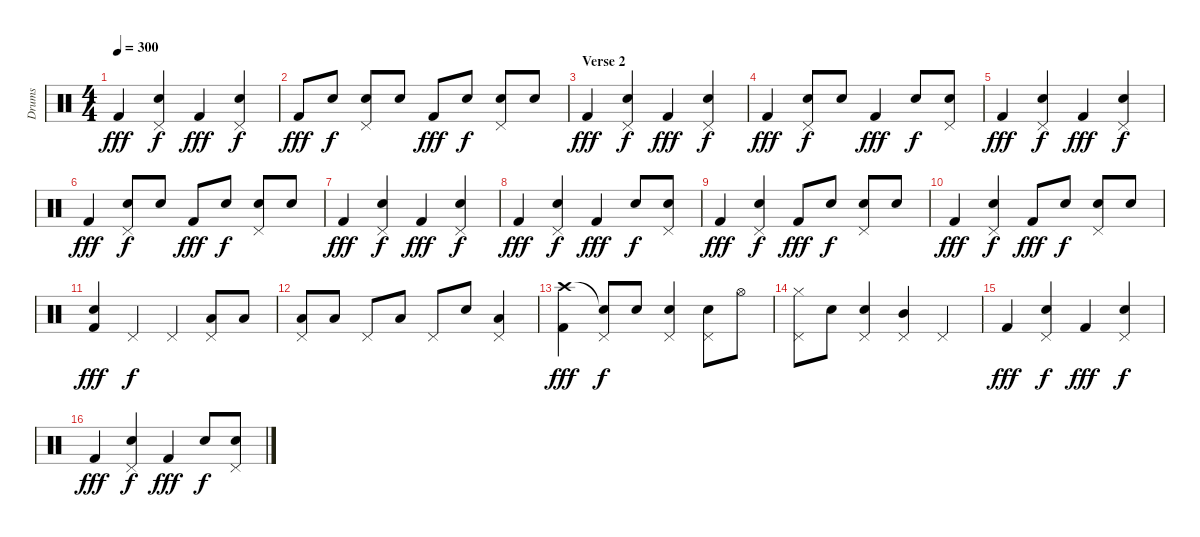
\track ("Drums" "Drums") {instrument percussion}
\staff {score}
\articulation defaults
\ts (4 4)
\tempo 300
\clef neutral
\ks c "Kick (hit) 2".4{dy fff}
("Snare (hit) 2" "Pedal Hi-Hat (hit)").4{dy f} "Kick (hit) 2".4{dy fff} ("Snare (hit) 2" "Pedal Hi-Hat (hit)").4{dy f} |
"Kick (hit) 2".8{dy fff} "Snare (hit) 2".8{dy f} ("Snare (hit) 2" "Pedal Hi-Hat (hit)").8 "Snare (hit) 2".8 "Kick (hit) 2".8{dy fff} "Snare (hit) 2".8{dy f} ("Snare (hit) 2" "Pedal Hi-Hat (hit)").8 "Snare (hit) 2".8 |
\section ("" "Verse 2")
"Kick (hit) 2".4{dy fff} ("Snare (hit) 2" "Pedal Hi-Hat (hit)").4{dy f} "Kick (hit) 2".4{dy fff} ("Snare (hit) 2" "Pedal Hi-Hat (hit)").4{dy f} |
"Kick (hit) 2".4{dy fff} ("Snare (hit) 2" "Pedal Hi-Hat (hit)").8{dy f} "Snare (hit) 2".8 "Kick (hit) 2".4{dy fff} "Snare (hit) 2".8{dy f} ("Snare (hit) 2" "Pedal Hi-Hat (hit)").8 |
"Kick (hit) 2".4{dy fff} ("Snare (hit) 2" "Pedal Hi-Hat (hit)").4{dy f} "Kick (hit) 2".4{dy fff} ("Snare (hit) 2" "Pedal Hi-Hat (hit)").4{dy f} |
"Kick (hit) 2".4{dy fff} ("Snare (hit) 2" "Pedal Hi-Hat (hit)").8{dy f} "Snare (hit) 2".8 "Kick (hit) 2".8{dy fff} "Snare (hit) 2".8{dy f} ("Snare (hit) 2" "Pedal Hi-Hat (hit)").8 "Snare (hit) 2".8 |
"Kick (hit) 2".4{dy fff} ("Snare (hit) 2" "Pedal Hi-Hat (hit)").4{dy f} "Kick (hit) 2".4{dy fff} ("Snare (hit) 2" "Pedal Hi-Hat (hit)").4{dy f} |
"Kick (hit) 2".4{dy fff} ("Snare (hit) 2" "Pedal Hi-Hat (hit)").4{dy f} "Kick (hit) 2".4{dy fff} "Snare (hit) 2".8{dy f} ("Snare (hit) 2" "Pedal Hi-Hat (hit)").8 |
"Kick (hit) 2".4{dy fff} ("Snare (hit) 2" "Pedal Hi-Hat (hit)").4{dy f} "Kick (hit) 2".8{dy fff} "Snare (hit) 2".8{dy f} ("Snare (hit) 2" "Pedal Hi-Hat (hit)").8 "Snare (hit) 2".8 |
"Kick (hit) 2".4{dy fff} ("Snare (hit) 2" "Pedal Hi-Hat (hit)").4{dy f} "Kick (hit) 2".8{dy fff} "Snare (hit) 2".8{dy f} ("Snare (hit) 2" "Pedal Hi-Hat (hit)").8 "Snare (hit) 2".8 |
("Snare (hit) 2" "Kick (hit) 2").4{dy fff} "Pedal Hi-Hat (hit)".4{dy f} "Pedal Hi-Hat (hit)".4 ("Low Tom (hit)" "Pedal Hi-Hat (hit)").8 "Low Tom (hit)".8 |
("Low Tom (hit)" "Pedal Hi-Hat (hit)").8 "Low Tom (hit)".8 "Pedal Hi-Hat (hit)".8 "Low Tom (hit)".8 "Pedal Hi-Hat (hit)".8 "Snare (hit) 2".8 ("Low Tom (hit)" "Pedal Hi-Hat (hit)").4 |
("Crash high (hit)" "Kick (hit) 2").4{dy fff} ("Snare (hit)"{t} "Pedal Hi-Hat (hit)").8{dy f} "Snare (hit) 2".8 ("Snare (hit) 2" "Pedal Hi-Hat (hit)").4 ("Snare (hit) 2" "Pedal Hi-Hat (hit)").8 "Hi-Hat (open)".8 |
("Hi-Hat (closed)" "Pedal Hi-Hat (hit)").8 "Snare (hit) 2".8 ("Snare (hit) 2" "Pedal Hi-Hat (hit)").4 ("Mid Tom (hit)" "Pedal Hi-Hat (hit)").4 "Pedal Hi-Hat (hit)".4 |
"Kick (hit) 2".4{dy fff} ("Snare (hit) 2" "Pedal Hi-Hat (hit)").4{dy f} "Kick (hit) 2".4{dy fff} ("Snare (hit) 2" "Pedal Hi-Hat (hit)").4{dy f} |
"Kick (hit) 2".4{dy fff} ("Snare (hit) 2" "Pedal Hi-Hat (hit)").4{dy f} "Kick (hit) 2".4{dy fff} "Snare (hit) 2".8{dy f} ("Snare (hit) 2" "Pedal Hi-Hat (hit)").8
